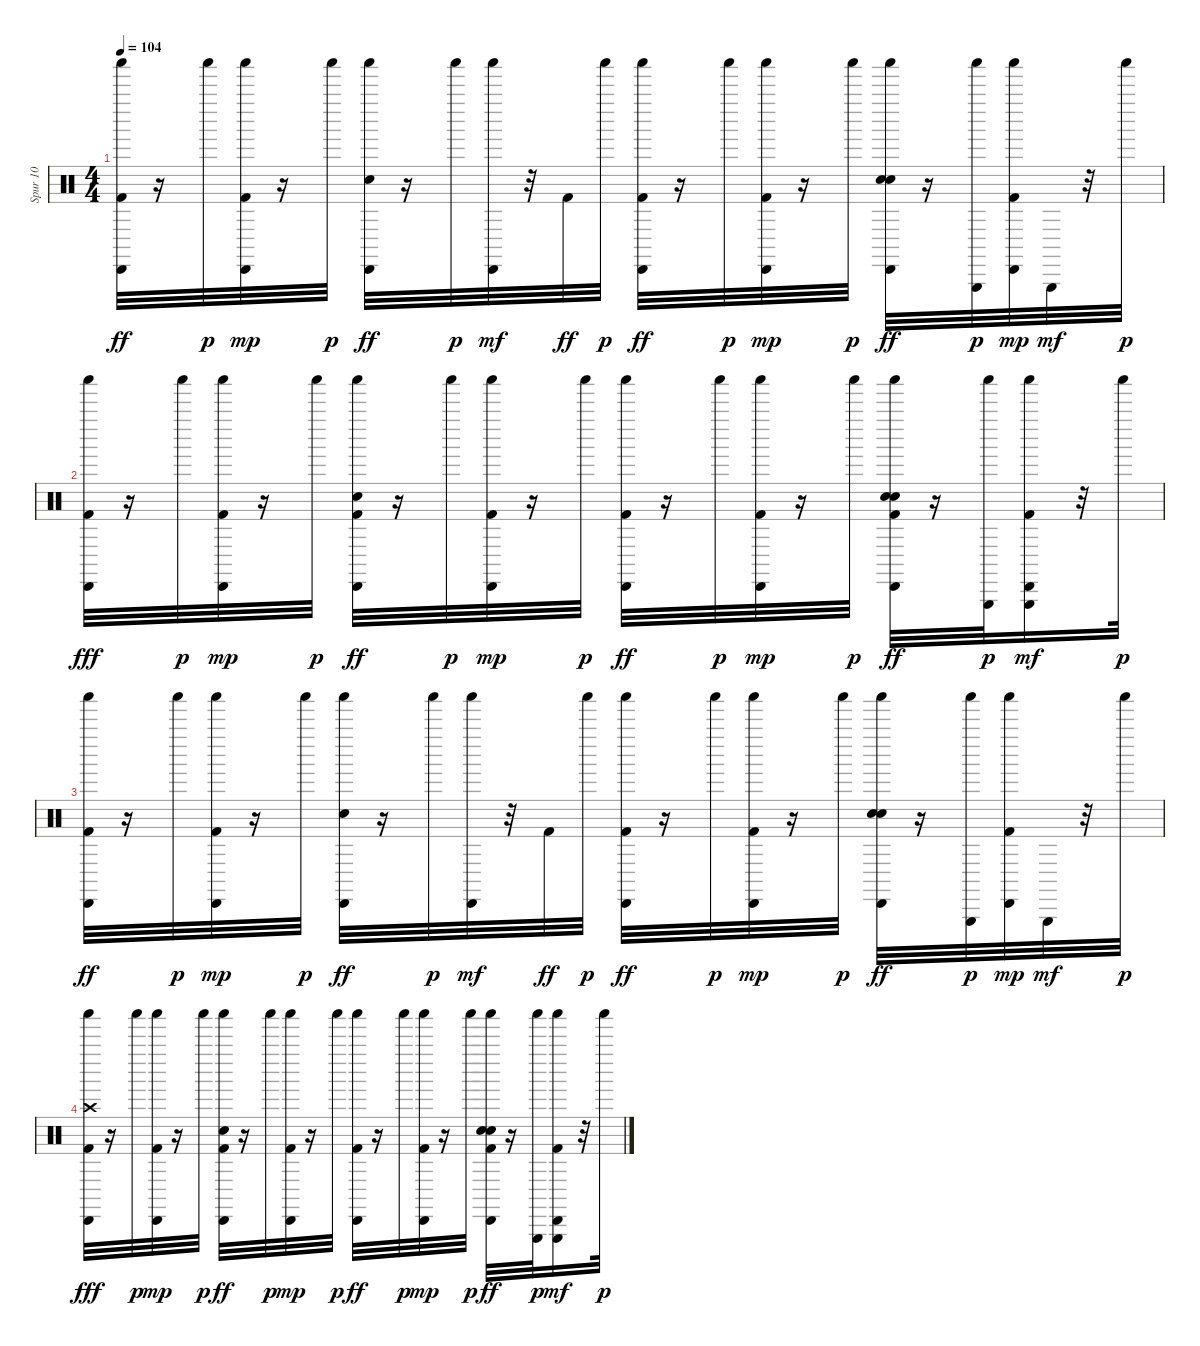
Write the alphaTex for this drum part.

\track ("Spur 10" "Spur 10") {instrument percussion}
\staff {score}
\articulation defaults
\ts (4 4)
\tempo 104
\clef neutral
\ks c
("Kick (hit) 2" "Cabasa (hit)" "Shaker (hit)").32{dy ff} r.16 "Shaker (hit)".32{dy p} ("Kick (hit) 2" "Cabasa (hit)" "Shaker (hit)").32{dy mp} r.16 "Shaker (hit)".32{dy p} ("Snare (hit) 2" "Cabasa (hit)" "Shaker (hit)").32{dy ff} r.16 "Shaker (hit)".32{dy p} ("Cabasa (hit)" "Shaker (hit)").32{dy mf} r.32 "Kick (hit) 2".32{dy ff} "Shaker (hit)".32{dy p} ("Kick (hit) 2" "Cabasa (hit)" "Shaker (hit)").32{dy ff} r.16 "Shaker (hit)".32{dy p} ("Kick (hit) 2" "Cabasa (hit)" "Shaker (hit)").32{dy mp} r.16 "Shaker (hit)".32{dy p} ("Snare (hit) 2" "Hand Clap (hit)" "Cabasa (hit)" "Shaker (hit)").32{dy ff} r.16 ("Shaker (hit)" "Triangle (hit)").32{dy p} ("Kick (hit) 2" "Cabasa (hit)" "Shaker (hit)").32{dy mp} "Triangle (hit)".32{dy mf} r.32 "Shaker (hit)".32{dy p} |
("Kick (hit) 2" "Cabasa (hit)" "Shaker (hit)").32{dy fff} r.16 "Shaker (hit)".32{dy p} ("Kick (hit) 2" "Cabasa (hit)" "Shaker (hit)").32{dy mp} r.16 "Shaker (hit)".32{dy p} ("Kick (hit) 2" "Snare (hit) 2" "Cabasa (hit)" "Shaker (hit)").32{dy ff} r.16 "Shaker (hit)".32{dy p} ("Kick (hit) 2" "Cabasa (hit)" "Shaker (hit)").32{dy mp} r.16 "Shaker (hit)".32{dy p} ("Kick (hit) 2" "Cabasa (hit)" "Shaker (hit)").32{dy ff} r.16 "Shaker (hit)".32{dy p} ("Kick (hit) 2" "Cabasa (hit)" "Shaker (hit)").32{dy mp} r.16 "Shaker (hit)".32{dy p} ("Kick (hit) 2" "Snare (hit) 2" "Hand Clap (hit)" "Cabasa (hit)" "Shaker (hit)").32{dy ff} r.16 ("Triangle (hit)" "Shaker (hit)").32{dy p} ("Kick (hit) 2" "Cabasa (hit)" "Shaker (hit)" "Triangle (hit)").16{dy mf} r.32 "Shaker (hit)".32{dy p} |
("Kick (hit) 2" "Cabasa (hit)" "Shaker (hit)").32{dy ff} r.16 "Shaker (hit)".32{dy p} ("Kick (hit) 2" "Cabasa (hit)" "Shaker (hit)").32{dy mp} r.16 "Shaker (hit)".32{dy p} ("Snare (hit) 2" "Cabasa (hit)" "Shaker (hit)").32{dy ff} r.16 "Shaker (hit)".32{dy p} ("Cabasa (hit)" "Shaker (hit)").32{dy mf} r.32 "Kick (hit) 2".32{dy ff} "Shaker (hit)".32{dy p} ("Kick (hit) 2" "Cabasa (hit)" "Shaker (hit)").32{dy ff} r.16 "Shaker (hit)".32{dy p} ("Kick (hit) 2" "Cabasa (hit)" "Shaker (hit)").32{dy mp} r.16 "Shaker (hit)".32{dy p} ("Snare (hit) 2" "Hand Clap (hit)" "Cabasa (hit)" "Shaker (hit)").32{dy ff} r.16 ("Shaker (hit)" "Triangle (hit)").32{dy p} ("Kick (hit) 2" "Cabasa (hit)" "Shaker (hit)").32{dy mp} "Triangle (hit)".32{dy mf} r.32 "Shaker (hit)".32{dy p} |
("Crash high (hit)" "Kick (hit) 2" "Cabasa (hit)" "Shaker (hit)").32{dy fff} r.16 "Shaker (hit)".32{dy p} ("Kick (hit) 2" "Cabasa (hit)" "Shaker (hit)").32{dy mp} r.16 "Shaker (hit)".32{dy p} ("Kick (hit) 2" "Snare (hit) 2" "Cabasa (hit)" "Shaker (hit)").32{dy ff} r.16 "Shaker (hit)".32{dy p} ("Kick (hit) 2" "Cabasa (hit)" "Shaker (hit)").32{dy mp} r.16 "Shaker (hit)".32{dy p} ("Kick (hit) 2" "Cabasa (hit)" "Shaker (hit)").32{dy ff} r.16 "Shaker (hit)".32{dy p} ("Kick (hit) 2" "Cabasa (hit)" "Shaker (hit)").32{dy mp} r.16 "Shaker (hit)".32{dy p} ("Kick (hit) 2" "Snare (hit) 2" "Hand Clap (hit)" "Cabasa (hit)" "Shaker (hit)").32{dy ff} r.16 ("Triangle (hit)" "Shaker (hit)").32{dy p} ("Kick (hit) 2" "Cabasa (hit)" "Shaker (hit)" "Triangle (hit)").16{dy mf} r.32 "Shaker (hit)".32{dy p}
